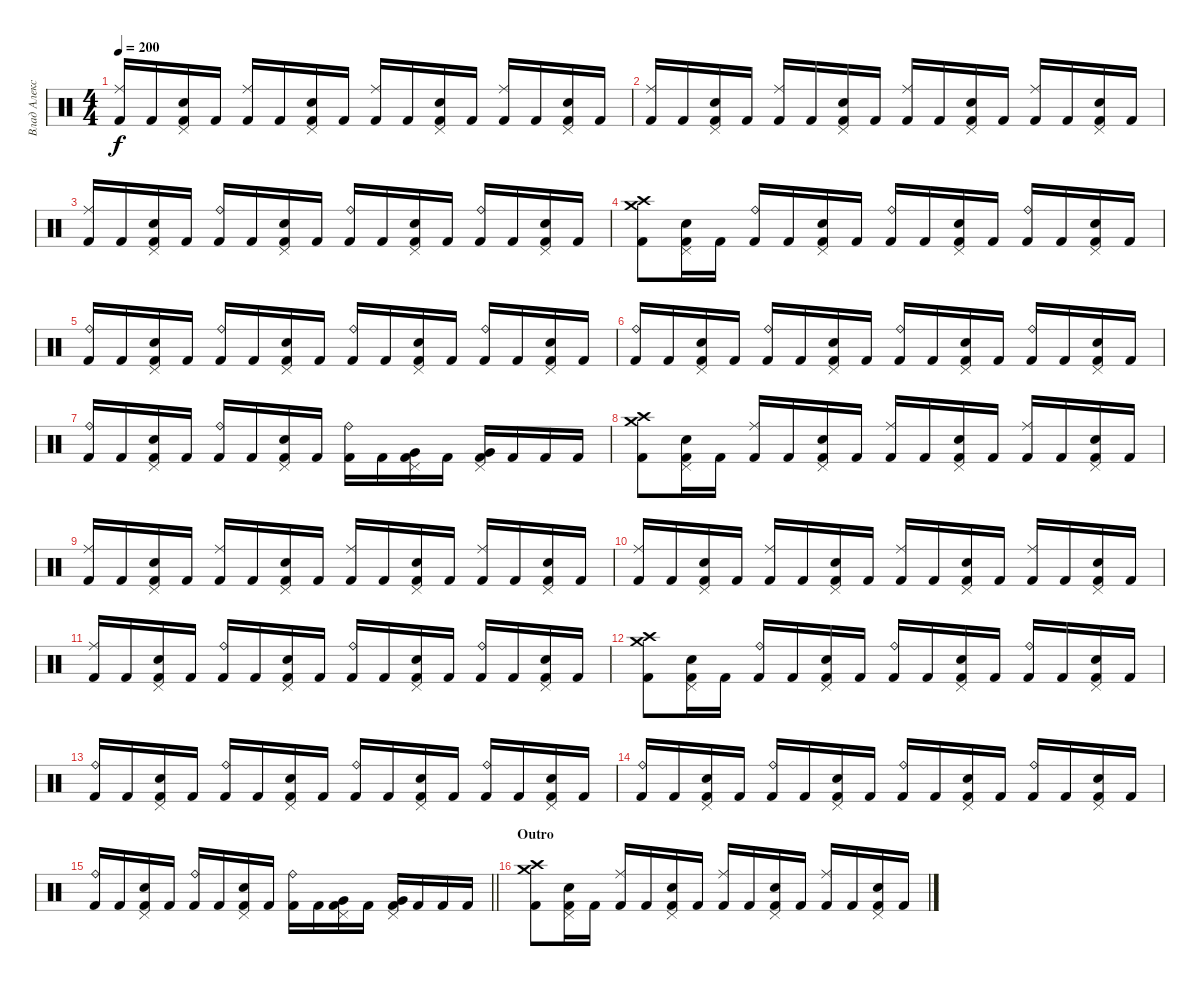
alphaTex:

\track ("Влад Алексеенко" "Влад Алекс") {instrument percussion}
\staff {score}
\articulation defaults
\ts (4 4)
\tempo 200
\clef neutral
\ks c
("Kick (hit) 2" "Ride (middle)").16{dy f} "Kick (hit) 2".16 ("Kick (hit) 2" "Electric Snare (hit)" "Pedal Hi-Hat (hit)").16 "Kick (hit) 2".16 ("Kick (hit) 2" "Ride (middle)").16 "Kick (hit) 2".16 ("Kick (hit) 2" "Electric Snare (hit)" "Pedal Hi-Hat (hit)").16 "Kick (hit) 2".16 ("Kick (hit) 2" "Ride (middle)").16 "Kick (hit) 2".16 ("Kick (hit) 2" "Electric Snare (hit)" "Pedal Hi-Hat (hit)").16 "Kick (hit) 2".16 ("Kick (hit) 2" "Ride (middle)").16 "Kick (hit) 2".16 ("Kick (hit) 2" "Electric Snare (hit)" "Pedal Hi-Hat (hit)").16 "Kick (hit) 2".16 |
("Kick (hit) 2" "Ride (middle)").16 "Kick (hit) 2".16 ("Kick (hit) 2" "Electric Snare (hit)" "Pedal Hi-Hat (hit)").16 "Kick (hit) 2".16 ("Kick (hit) 2" "Ride (middle)").16 "Kick (hit) 2".16 ("Kick (hit) 2" "Electric Snare (hit)" "Pedal Hi-Hat (hit)").16 "Kick (hit) 2".16 ("Kick (hit) 2" "Ride (middle)").16 "Kick (hit) 2".16 ("Kick (hit) 2" "Electric Snare (hit)" "Pedal Hi-Hat (hit)").16 "Kick (hit) 2".16 ("Kick (hit) 2" "Ride (middle)").16 "Kick (hit) 2".16 ("Kick (hit) 2" "Electric Snare (hit)" "Pedal Hi-Hat (hit)").16 "Kick (hit) 2".16 |
("Kick (hit) 2" "Ride (middle)").16 "Kick (hit) 2".16 ("Kick (hit) 2" "Electric Snare (hit)" "Pedal Hi-Hat (hit)").16 "Kick (hit) 2".16 ("Kick (hit) 2" "Ride (bell)").16 "Kick (hit) 2".16 ("Kick (hit) 2" "Electric Snare (hit)" "Pedal Hi-Hat (hit)").16 "Kick (hit) 2".16 ("Kick (hit) 2" "Ride (bell)").16 "Kick (hit) 2".16 ("Kick (hit) 2" "Electric Snare (hit)" "Pedal Hi-Hat (hit)").16 "Kick (hit) 2".16 ("Kick (hit) 2" "Ride (bell)").16 "Kick (hit) 2".16 ("Kick (hit) 2" "Electric Snare (hit)" "Pedal Hi-Hat (hit)").16 "Kick (hit) 2".16 |
("Crash high (hit)" "Crash medium (hit)" "Kick (hit) 2").8 ("Kick (hit) 2" "Electric Snare (hit)" "Pedal Hi-Hat (hit)").16 "Kick (hit) 2".16 ("Kick (hit) 2" "Ride (bell)").16 "Kick (hit) 2".16 ("Kick (hit) 2" "Electric Snare (hit)" "Pedal Hi-Hat (hit)").16 "Kick (hit) 2".16 ("Kick (hit) 2" "Ride (bell)").16 "Kick (hit) 2".16 ("Kick (hit) 2" "Electric Snare (hit)" "Pedal Hi-Hat (hit)").16 "Kick (hit) 2".16 ("Kick (hit) 2" "Ride (bell)").16 "Kick (hit) 2".16 ("Kick (hit) 2" "Electric Snare (hit)" "Pedal Hi-Hat (hit)").16 "Kick (hit) 2".16 |
("Kick (hit) 2" "Ride (bell)").16 "Kick (hit) 2".16 ("Kick (hit) 2" "Electric Snare (hit)" "Pedal Hi-Hat (hit)").16 "Kick (hit) 2".16 ("Kick (hit) 2" "Ride (bell)").16 "Kick (hit) 2".16 ("Kick (hit) 2" "Electric Snare (hit)" "Pedal Hi-Hat (hit)").16 "Kick (hit) 2".16 ("Kick (hit) 2" "Ride (bell)").16 "Kick (hit) 2".16 ("Kick (hit) 2" "Electric Snare (hit)" "Pedal Hi-Hat (hit)").16 "Kick (hit) 2".16 ("Kick (hit) 2" "Ride (bell)").16 "Kick (hit) 2".16 ("Kick (hit) 2" "Electric Snare (hit)" "Pedal Hi-Hat (hit)").16 "Kick (hit) 2".16 |
("Kick (hit) 2" "Ride (bell)").16 "Kick (hit) 2".16 ("Kick (hit) 2" "Electric Snare (hit)" "Pedal Hi-Hat (hit)").16 "Kick (hit) 2".16 ("Kick (hit) 2" "Ride (bell)").16 "Kick (hit) 2".16 ("Kick (hit) 2" "Electric Snare (hit)" "Pedal Hi-Hat (hit)").16 "Kick (hit) 2".16 ("Kick (hit) 2" "Ride (bell)").16 "Kick (hit) 2".16 ("Kick (hit) 2" "Electric Snare (hit)" "Pedal Hi-Hat (hit)").16 "Kick (hit) 2".16 ("Kick (hit) 2" "Ride (bell)").16 "Kick (hit) 2".16 ("Kick (hit) 2" "Electric Snare (hit)" "Pedal Hi-Hat (hit)").16 "Kick (hit) 2".16 |
("Kick (hit) 2" "Ride (bell)").16 "Kick (hit) 2".16 ("Kick (hit) 2" "Electric Snare (hit)" "Pedal Hi-Hat (hit)").16 "Kick (hit) 2".16 ("Kick (hit) 2" "Ride (bell)").16 "Kick (hit) 2".16 ("Kick (hit) 2" "Electric Snare (hit)" "Pedal Hi-Hat (hit)").16 "Kick (hit) 2".16 ("Kick (hit) 2" "Ride (bell)").16 "Kick (hit) 2".16 ("Kick (hit) 2" "Pedal Hi-Hat (hit)" "Very Low Tom (hit)").16 "Kick (hit) 2".16 ("Kick (hit) 2" "Pedal Hi-Hat (hit)" "Very Low Tom (hit)").16 "Kick (hit) 2".16 "Kick (hit) 2".16 "Kick (hit) 2".16 |
("Crash high (hit)" "Crash medium (hit)" "Kick (hit) 2").8 ("Kick (hit) 2" "Electric Snare (hit)" "Pedal Hi-Hat (hit)").16 "Kick (hit) 2".16 ("Kick (hit) 2" "Ride (middle)").16 "Kick (hit) 2".16 ("Kick (hit) 2" "Electric Snare (hit)" "Pedal Hi-Hat (hit)").16 "Kick (hit) 2".16 ("Kick (hit) 2" "Ride (middle)").16 "Kick (hit) 2".16 ("Kick (hit) 2" "Electric Snare (hit)" "Pedal Hi-Hat (hit)").16 "Kick (hit) 2".16 ("Kick (hit) 2" "Ride (middle)").16 "Kick (hit) 2".16 ("Kick (hit) 2" "Electric Snare (hit)" "Pedal Hi-Hat (hit)").16 "Kick (hit) 2".16 |
("Kick (hit) 2" "Ride (middle)").16 "Kick (hit) 2".16 ("Kick (hit) 2" "Electric Snare (hit)" "Pedal Hi-Hat (hit)").16 "Kick (hit) 2".16 ("Kick (hit) 2" "Ride (middle)").16 "Kick (hit) 2".16 ("Kick (hit) 2" "Electric Snare (hit)" "Pedal Hi-Hat (hit)").16 "Kick (hit) 2".16 ("Kick (hit) 2" "Ride (middle)").16 "Kick (hit) 2".16 ("Kick (hit) 2" "Electric Snare (hit)" "Pedal Hi-Hat (hit)").16 "Kick (hit) 2".16 ("Kick (hit) 2" "Ride (middle)").16 "Kick (hit) 2".16 ("Kick (hit) 2" "Electric Snare (hit)" "Pedal Hi-Hat (hit)").16 "Kick (hit) 2".16 |
("Kick (hit) 2" "Ride (middle)").16 "Kick (hit) 2".16 ("Kick (hit) 2" "Electric Snare (hit)" "Pedal Hi-Hat (hit)").16 "Kick (hit) 2".16 ("Kick (hit) 2" "Ride (middle)").16 "Kick (hit) 2".16 ("Kick (hit) 2" "Electric Snare (hit)" "Pedal Hi-Hat (hit)").16 "Kick (hit) 2".16 ("Kick (hit) 2" "Ride (middle)").16 "Kick (hit) 2".16 ("Kick (hit) 2" "Electric Snare (hit)" "Pedal Hi-Hat (hit)").16 "Kick (hit) 2".16 ("Kick (hit) 2" "Ride (middle)").16 "Kick (hit) 2".16 ("Kick (hit) 2" "Electric Snare (hit)" "Pedal Hi-Hat (hit)").16 "Kick (hit) 2".16 |
("Kick (hit) 2" "Ride (middle)").16 "Kick (hit) 2".16 ("Kick (hit) 2" "Electric Snare (hit)" "Pedal Hi-Hat (hit)").16 "Kick (hit) 2".16 ("Kick (hit) 2" "Ride (bell)").16 "Kick (hit) 2".16 ("Kick (hit) 2" "Electric Snare (hit)" "Pedal Hi-Hat (hit)").16 "Kick (hit) 2".16 ("Kick (hit) 2" "Ride (bell)").16 "Kick (hit) 2".16 ("Kick (hit) 2" "Electric Snare (hit)" "Pedal Hi-Hat (hit)").16 "Kick (hit) 2".16 ("Kick (hit) 2" "Ride (bell)").16 "Kick (hit) 2".16 ("Kick (hit) 2" "Electric Snare (hit)" "Pedal Hi-Hat (hit)").16 "Kick (hit) 2".16 |
("Crash high (hit)" "Crash medium (hit)" "Kick (hit) 2").8 ("Kick (hit) 2" "Electric Snare (hit)" "Pedal Hi-Hat (hit)").16 "Kick (hit) 2".16 ("Kick (hit) 2" "Ride (bell)").16 "Kick (hit) 2".16 ("Kick (hit) 2" "Electric Snare (hit)" "Pedal Hi-Hat (hit)").16 "Kick (hit) 2".16 ("Kick (hit) 2" "Ride (bell)").16 "Kick (hit) 2".16 ("Kick (hit) 2" "Electric Snare (hit)" "Pedal Hi-Hat (hit)").16 "Kick (hit) 2".16 ("Kick (hit) 2" "Ride (bell)").16 "Kick (hit) 2".16 ("Kick (hit) 2" "Electric Snare (hit)" "Pedal Hi-Hat (hit)").16 "Kick (hit) 2".16 |
("Kick (hit) 2" "Ride (bell)").16 "Kick (hit) 2".16 ("Kick (hit) 2" "Electric Snare (hit)" "Pedal Hi-Hat (hit)").16 "Kick (hit) 2".16 ("Kick (hit) 2" "Ride (bell)").16 "Kick (hit) 2".16 ("Kick (hit) 2" "Electric Snare (hit)" "Pedal Hi-Hat (hit)").16 "Kick (hit) 2".16 ("Kick (hit) 2" "Ride (bell)").16 "Kick (hit) 2".16 ("Kick (hit) 2" "Electric Snare (hit)" "Pedal Hi-Hat (hit)").16 "Kick (hit) 2".16 ("Kick (hit) 2" "Ride (bell)").16 "Kick (hit) 2".16 ("Kick (hit) 2" "Electric Snare (hit)" "Pedal Hi-Hat (hit)").16 "Kick (hit) 2".16 |
("Kick (hit) 2" "Ride (bell)").16 "Kick (hit) 2".16 ("Kick (hit) 2" "Electric Snare (hit)" "Pedal Hi-Hat (hit)").16 "Kick (hit) 2".16 ("Kick (hit) 2" "Ride (bell)").16 "Kick (hit) 2".16 ("Kick (hit) 2" "Electric Snare (hit)" "Pedal Hi-Hat (hit)").16 "Kick (hit) 2".16 ("Kick (hit) 2" "Ride (bell)").16 "Kick (hit) 2".16 ("Kick (hit) 2" "Electric Snare (hit)" "Pedal Hi-Hat (hit)").16 "Kick (hit) 2".16 ("Kick (hit) 2" "Ride (bell)").16 "Kick (hit) 2".16 ("Kick (hit) 2" "Electric Snare (hit)" "Pedal Hi-Hat (hit)").16 "Kick (hit) 2".16 |
\barLineRight lightlight
("Kick (hit) 2" "Ride (bell)").16 "Kick (hit) 2".16 ("Kick (hit) 2" "Electric Snare (hit)" "Pedal Hi-Hat (hit)").16 "Kick (hit) 2".16 ("Kick (hit) 2" "Ride (bell)").16 "Kick (hit) 2".16 ("Kick (hit) 2" "Electric Snare (hit)" "Pedal Hi-Hat (hit)").16 "Kick (hit) 2".16 ("Kick (hit) 2" "Ride (bell)").16 "Kick (hit) 2".16 ("Kick (hit) 2" "Pedal Hi-Hat (hit)" "Very Low Tom (hit)").16 "Kick (hit) 2".16 ("Kick (hit) 2" "Pedal Hi-Hat (hit)" "Very Low Tom (hit)").16 "Kick (hit) 2".16 "Kick (hit) 2".16 "Kick (hit) 2".16 |
\section ("" "Outro")
("Crash high (hit)" "Crash medium (hit)" "Kick (hit) 2").8 ("Kick (hit) 2" "Electric Snare (hit)" "Pedal Hi-Hat (hit)").16 "Kick (hit) 2".16 ("Kick (hit) 2" "Ride (middle)").16 "Kick (hit) 2".16 ("Kick (hit) 2" "Electric Snare (hit)" "Pedal Hi-Hat (hit)").16 "Kick (hit) 2".16 ("Kick (hit) 2" "Ride (middle)").16 "Kick (hit) 2".16 ("Kick (hit) 2" "Electric Snare (hit)" "Pedal Hi-Hat (hit)").16 "Kick (hit) 2".16 ("Kick (hit) 2" "Ride (middle)").16 "Kick (hit) 2".16 ("Kick (hit) 2" "Electric Snare (hit)" "Pedal Hi-Hat (hit)").16 "Kick (hit) 2".16
